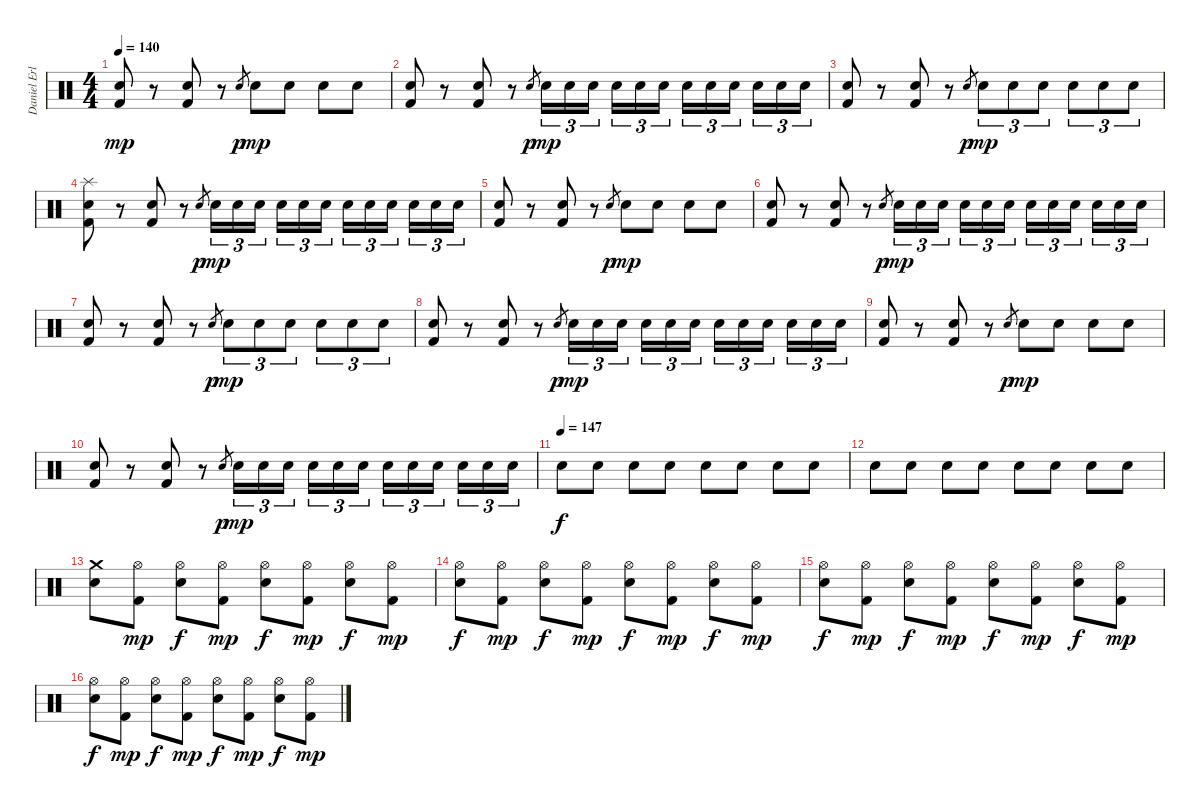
\track ("Daniel Erlandsson" "Daniel Erl") {instrument percussion}
\staff {score}
\articulation defaults
\ts (4 4)
\tempo 140
\clef neutral
\ks c
("Snare (hit) 2" "Kick (hit) 2").8{dy mp} r.8 ("Snare (hit) 2" "Kick (hit) 2").8 r.8 "Snare (hit) 2".8{gr dy p} "Snare (hit) 2".8{dy mp} "Snare (hit) 2".8 "Snare (hit) 2".8 "Snare (hit) 2".8 |
("Snare (hit) 2" "Kick (hit) 2").8 r.8 ("Snare (hit) 2" "Kick (hit) 2").8 r.8 "Snare (hit) 2".8{gr dy p} "Snare (hit) 2".16{tu (3 2) dy mp} "Snare (hit) 2".16{tu (3 2)} "Snare (hit) 2".16{tu (3 2)} "Snare (hit) 2".16{tu (3 2)} "Snare (hit) 2".16{tu (3 2)} "Snare (hit) 2".16{tu (3 2)} "Snare (hit) 2".16{tu (3 2)} "Snare (hit) 2".16{tu (3 2)} "Snare (hit) 2".16{tu (3 2)} "Snare (hit) 2".16{tu (3 2)} "Snare (hit) 2".16{tu (3 2)} "Snare (hit) 2".16{tu (3 2)} |
("Snare (hit) 2" "Kick (hit) 2").8 r.8 ("Snare (hit) 2" "Kick (hit) 2").8 r.8 "Snare (hit) 2".8{gr dy p} "Snare (hit) 2".8{tu (3 2) dy mp} "Snare (hit) 2".8{tu (3 2)} "Snare (hit) 2".8{tu (3 2)} "Snare (hit) 2".8{tu (3 2)} "Snare (hit) 2".8{tu (3 2)} "Snare (hit) 2".8{tu (3 2)} |
("Splash (hit)" "Snare (hit) 2" "Kick (hit) 2").8 r.8 ("Snare (hit) 2" "Kick (hit) 2").8 r.8 "Snare (hit) 2".8{gr dy p} "Snare (hit) 2".16{tu (3 2) dy mp} "Snare (hit) 2".16{tu (3 2)} "Snare (hit) 2".16{tu (3 2)} "Snare (hit) 2".16{tu (3 2)} "Snare (hit) 2".16{tu (3 2)} "Snare (hit) 2".16{tu (3 2)} "Snare (hit) 2".16{tu (3 2)} "Snare (hit) 2".16{tu (3 2)} "Snare (hit) 2".16{tu (3 2)} "Snare (hit) 2".16{tu (3 2)} "Snare (hit) 2".16{tu (3 2)} "Snare (hit) 2".16{tu (3 2)} |
("Snare (hit) 2" "Kick (hit) 2").8 r.8 ("Snare (hit) 2" "Kick (hit) 2").8 r.8 "Snare (hit) 2".8{gr dy p} "Snare (hit) 2".8{dy mp} "Snare (hit) 2".8 "Snare (hit) 2".8 "Snare (hit) 2".8 |
("Snare (hit) 2" "Kick (hit) 2").8 r.8 ("Snare (hit) 2" "Kick (hit) 2").8 r.8 "Snare (hit) 2".8{gr dy p} "Snare (hit) 2".16{tu (3 2) dy mp} "Snare (hit) 2".16{tu (3 2)} "Snare (hit) 2".16{tu (3 2)} "Snare (hit) 2".16{tu (3 2)} "Snare (hit) 2".16{tu (3 2)} "Snare (hit) 2".16{tu (3 2)} "Snare (hit) 2".16{tu (3 2)} "Snare (hit) 2".16{tu (3 2)} "Snare (hit) 2".16{tu (3 2)} "Snare (hit) 2".16{tu (3 2)} "Snare (hit) 2".16{tu (3 2)} "Snare (hit) 2".16{tu (3 2)} |
("Snare (hit) 2" "Kick (hit) 2").8 r.8 ("Snare (hit) 2" "Kick (hit) 2").8 r.8 "Snare (hit) 2".8{gr dy p} "Snare (hit) 2".8{tu (3 2) dy mp} "Snare (hit) 2".8{tu (3 2)} "Snare (hit) 2".8{tu (3 2)} "Snare (hit) 2".8{tu (3 2)} "Snare (hit) 2".8{tu (3 2)} "Snare (hit) 2".8{tu (3 2)} |
("Snare (hit) 2" "Kick (hit) 2").8 r.8 ("Snare (hit) 2" "Kick (hit) 2").8 r.8 "Snare (hit) 2".8{gr dy p} "Snare (hit) 2".16{tu (3 2) dy mp} "Snare (hit) 2".16{tu (3 2)} "Snare (hit) 2".16{tu (3 2)} "Snare (hit) 2".16{tu (3 2)} "Snare (hit) 2".16{tu (3 2)} "Snare (hit) 2".16{tu (3 2)} "Snare (hit) 2".16{tu (3 2)} "Snare (hit) 2".16{tu (3 2)} "Snare (hit) 2".16{tu (3 2)} "Snare (hit) 2".16{tu (3 2)} "Snare (hit) 2".16{tu (3 2)} "Snare (hit) 2".16{tu (3 2)} |
("Snare (hit) 2" "Kick (hit) 2").8 r.8 ("Snare (hit) 2" "Kick (hit) 2").8 r.8 "Snare (hit) 2".8{gr dy p} "Snare (hit) 2".8{dy mp} "Snare (hit) 2".8 "Snare (hit) 2".8 "Snare (hit) 2".8 |
("Snare (hit) 2" "Kick (hit) 2").8 r.8 ("Snare (hit) 2" "Kick (hit) 2").8 r.8 "Snare (hit) 2".8{gr dy p} "Snare (hit) 2".16{tu (3 2) dy mp} "Snare (hit) 2".16{tu (3 2)} "Snare (hit) 2".16{tu (3 2)} "Snare (hit) 2".16{tu (3 2)} "Snare (hit) 2".16{tu (3 2)} "Snare (hit) 2".16{tu (3 2)} "Snare (hit) 2".16{tu (3 2)} "Snare (hit) 2".16{tu (3 2)} "Snare (hit) 2".16{tu (3 2)} "Snare (hit) 2".16{tu (3 2)} "Snare (hit) 2".16{tu (3 2)} "Snare (hit) 2".16{tu (3 2)} |
\tempo (147)
"Electric Snare (hit)".8{dy f volume 3} "Electric Snare (hit)".8{volume 15} "Electric Snare (hit)".8 "Electric Snare (hit)".8 "Electric Snare (hit)".8 "Electric Snare (hit)".8 "Electric Snare (hit)".8 "Electric Snare (hit)".8 |
"Electric Snare (hit)".8 "Electric Snare (hit)".8 "Electric Snare (hit)".8 "Electric Snare (hit)".8 "Electric Snare (hit)".8 "Electric Snare (hit)".8 "Electric Snare (hit)".8 "Electric Snare (hit)".8 |
("Crash medium (hit)" "Electric Snare (hit)").8 ("Hi-Hat (open)" "Kick (hit) 2").8{dy mp} ("Hi-Hat (open)" "Electric Snare (hit)").8{dy f} ("Hi-Hat (open)" "Kick (hit) 2").8{dy mp} ("Hi-Hat (open)" "Electric Snare (hit)").8{dy f} ("Hi-Hat (open)" "Kick (hit) 2").8{dy mp} ("Hi-Hat (open)" "Electric Snare (hit)").8{dy f} ("Hi-Hat (open)" "Kick (hit) 2").8{dy mp} |
("Hi-Hat (open)" "Electric Snare (hit)").8{dy f} ("Hi-Hat (open)" "Kick (hit) 2").8{dy mp} ("Hi-Hat (open)" "Electric Snare (hit)").8{dy f} ("Hi-Hat (open)" "Kick (hit) 2").8{dy mp} ("Hi-Hat (open)" "Electric Snare (hit)").8{dy f} ("Hi-Hat (open)" "Kick (hit) 2").8{dy mp} ("Hi-Hat (open)" "Electric Snare (hit)").8{dy f} ("Hi-Hat (open)" "Kick (hit) 2").8{dy mp} |
("Hi-Hat (open)" "Electric Snare (hit)").8{dy f} ("Hi-Hat (open)" "Kick (hit) 2").8{dy mp} ("Hi-Hat (open)" "Electric Snare (hit)").8{dy f} ("Hi-Hat (open)" "Kick (hit) 2").8{dy mp} ("Hi-Hat (open)" "Electric Snare (hit)").8{dy f} ("Hi-Hat (open)" "Kick (hit) 2").8{dy mp} ("Hi-Hat (open)" "Electric Snare (hit)").8{dy f} ("Hi-Hat (open)" "Kick (hit) 2").8{dy mp} |
("Hi-Hat (open)" "Electric Snare (hit)").8{dy f} ("Hi-Hat (open)" "Kick (hit) 2").8{dy mp} ("Hi-Hat (open)" "Electric Snare (hit)").8{dy f} ("Hi-Hat (open)" "Kick (hit) 2").8{dy mp} ("Hi-Hat (open)" "Electric Snare (hit)").8{dy f} ("Hi-Hat (open)" "Kick (hit) 2").8{dy mp} ("Hi-Hat (open)" "Electric Snare (hit)").8{dy f} ("Hi-Hat (open)" "Kick (hit) 2").8{dy mp}
